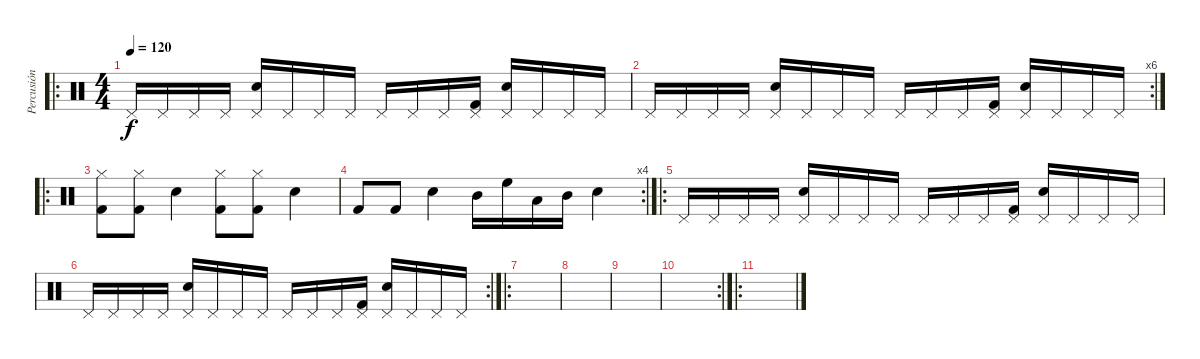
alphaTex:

\track ("Percusión" "Percusión") {instrument percussion}
\staff {score}
\articulation defaults
\ro
\ts (4 4)
\tempo 120
\clef neutral
\ks c "Pedal Hi-Hat (hit)".16{dy f} "Pedal Hi-Hat (hit)".16 "Pedal Hi-Hat (hit)".16 "Pedal Hi-Hat (hit)".16
("Pedal Hi-Hat (hit)" "Snare (hit) 2").16 "Pedal Hi-Hat (hit)".16 "Pedal Hi-Hat (hit)".16 "Pedal Hi-Hat (hit)".16 "Pedal Hi-Hat (hit)".16 "Pedal Hi-Hat (hit)".16 "Pedal Hi-Hat (hit)".16 ("Pedal Hi-Hat (hit)" "Kick (hit) 2").16 ("Pedal Hi-Hat (hit)" "Snare (hit) 2").16 "Pedal Hi-Hat (hit)".16 "Pedal Hi-Hat (hit)".16 "Pedal Hi-Hat (hit)".16 |
\rc 6 "Pedal Hi-Hat (hit)".16 "Pedal Hi-Hat (hit)".16 "Pedal Hi-Hat (hit)".16 "Pedal Hi-Hat (hit)".16
("Pedal Hi-Hat (hit)" "Snare (hit) 2").16 "Pedal Hi-Hat (hit)".16 "Pedal Hi-Hat (hit)".16 "Pedal Hi-Hat (hit)".16 "Pedal Hi-Hat (hit)".16 "Pedal Hi-Hat (hit)".16 "Pedal Hi-Hat (hit)".16 ("Pedal Hi-Hat (hit)" "Kick (hit) 2").16 ("Pedal Hi-Hat (hit)" "Snare (hit) 2").16 "Pedal Hi-Hat (hit)".16 "Pedal Hi-Hat (hit)".16 "Pedal Hi-Hat (hit)".16 |
\ro
("Hi-Hat (closed)" "Kick (hit) 2").8 ("Hi-Hat (closed)" "Kick (hit) 2").8 "Snare (hit) 2".4 ("Hi-Hat (closed)" "Kick (hit) 2").8 ("Hi-Hat (closed)" "Kick (hit) 2").8 "Snare (hit) 2".4 |
\rc 4 "Kick (hit) 2".8 "Kick (hit) 2".8 "Snare (hit) 2".4 "Mid Tom (hit)".16 "High Floor Tom (hit)".16 "Low Tom (hit)".16 "Mid Tom (hit)".16 "Snare (hit) 2".4
|
\ro "Pedal Hi-Hat (hit)".16 "Pedal Hi-Hat (hit)".16 "Pedal Hi-Hat (hit)".16 "Pedal Hi-Hat (hit)".16
("Pedal Hi-Hat (hit)" "Snare (hit) 2").16 "Pedal Hi-Hat (hit)".16 "Pedal Hi-Hat (hit)".16 "Pedal Hi-Hat (hit)".16 "Pedal Hi-Hat (hit)".16 "Pedal Hi-Hat (hit)".16 "Pedal Hi-Hat (hit)".16 ("Pedal Hi-Hat (hit)" "Kick (hit) 2").16 ("Pedal Hi-Hat (hit)" "Snare (hit) 2").16 "Pedal Hi-Hat (hit)".16 "Pedal Hi-Hat (hit)".16 "Pedal Hi-Hat (hit)".16 |
\rc 2 "Pedal Hi-Hat (hit)".16 "Pedal Hi-Hat (hit)".16 "Pedal Hi-Hat (hit)".16 "Pedal Hi-Hat (hit)".16
("Pedal Hi-Hat (hit)" "Snare (hit) 2").16 "Pedal Hi-Hat (hit)".16 "Pedal Hi-Hat (hit)".16 "Pedal Hi-Hat (hit)".16 "Pedal Hi-Hat (hit)".16 "Pedal Hi-Hat (hit)".16 "Pedal Hi-Hat (hit)".16 ("Pedal Hi-Hat (hit)" "Kick (hit) 2").16 ("Pedal Hi-Hat (hit)" "Snare (hit) 2").16 "Pedal Hi-Hat (hit)".16 "Pedal Hi-Hat (hit)".16 "Pedal Hi-Hat (hit)".16 |
\ro
|
|
|
\rc 2
|
\ro
